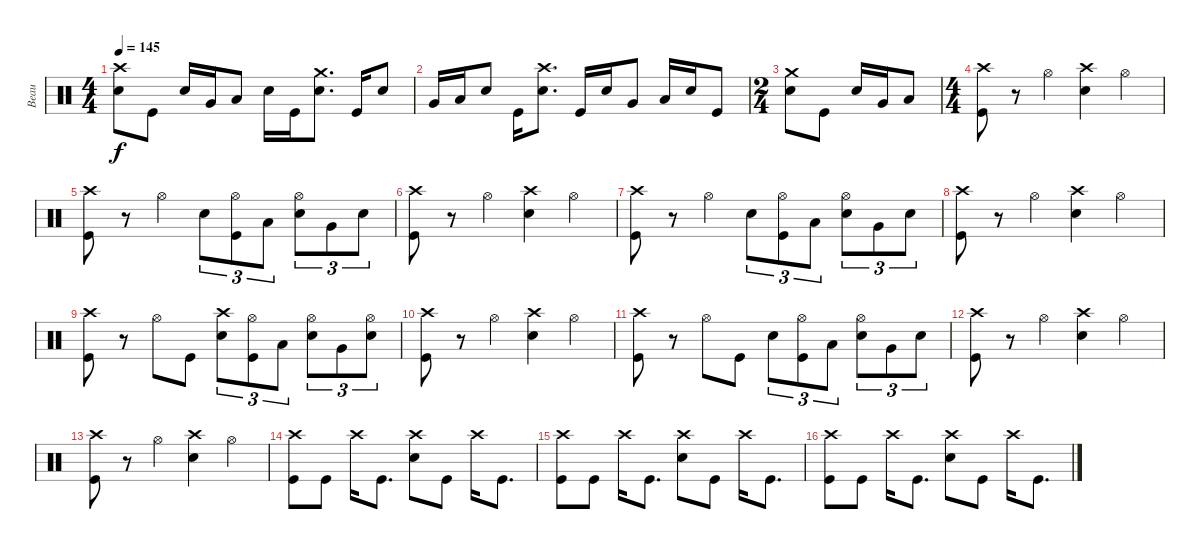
\track ("Beau" "Beau") {instrument percussion}
\staff {score}
\articulation defaults
\ts (4 4)
\tempo 145
\clef neutral
\ks c
("Snare (hit) 2" "Crash high (hit)").8{dy f} "Kick (hit)".8 "Snare (hit) 2".16 "Very Low Tom (hit)".16 "Low Floor Tom (hit)".8 "Snare (hit) 2".16 "Kick (hit)".16 ("Snare (hit) 2" "Crash medium (hit)").8{d} "Kick (hit)".16 "Snare (hit) 2".8 |
"Very Low Tom (hit)".16 "Low Floor Tom (hit)".16 "Snare (hit) 2".8 "Kick (hit)".16 ("Snare (hit) 2" "Crash high (hit)").8{d} "Kick (hit)".16 "Snare (hit) 2".16 "Very Low Tom (hit)".8 "Low Floor Tom (hit)".16 "Snare (hit) 2".16 "Kick (hit)".8 |
\ts (2 4)
("Snare (hit) 2" "Crash medium (hit)").8 "Kick (hit)".8 "Snare (hit) 2".16 "Very Low Tom (hit)".16 "Low Floor Tom (hit)".8 |
\ts (4 4)
("Kick (hit)" "Crash high (hit)").8 r.8 "Hi-Hat (open)".4 ("Snare (hit) 2" "Crash high (hit)").4 "Hi-Hat (open)".4 |
("Kick (hit)" "Crash high (hit)").8 r.8 "Hi-Hat (open)".4 "Snare (hit) 2".8{tu (3 2)} ("Kick (hit)" "Hi-Hat (open)").8{tu (3 2)} "Low Tom (hit)".8{tu (3 2)} ("Snare (hit) 2" "Hi-Hat (open)").8{tu (3 2)} "Very Low Tom (hit)".8{tu (3 2)} "Snare (hit) 2".8{tu (3 2)} |
("Kick (hit)" "Crash high (hit)").8 r.8 "Hi-Hat (open)".4 ("Snare (hit) 2" "Crash high (hit)").4 "Hi-Hat (open)".4 |
("Kick (hit)" "Crash high (hit)").8 r.8 "Hi-Hat (open)".4 "Snare (hit) 2".8{tu (3 2)} ("Kick (hit)" "Hi-Hat (open)").8{tu (3 2)} "Low Tom (hit)".8{tu (3 2)} ("Snare (hit) 2" "Hi-Hat (open)").8{tu (3 2)} "Very Low Tom (hit)".8{tu (3 2)} "Snare (hit) 2".8{tu (3 2)} |
("Kick (hit)" "Crash high (hit)").8 r.8 "Hi-Hat (open)".4 ("Snare (hit) 2" "Crash high (hit)").4 "Hi-Hat (open)".4 |
("Kick (hit)" "Crash high (hit)").8 r.8 "Hi-Hat (open)".8 "Kick (hit)".8 ("Snare (hit) 2" "Crash high (hit)").8{tu (3 2)} ("Kick (hit)" "Hi-Hat (open)").8{tu (3 2)} "Low Tom (hit)".8{tu (3 2)} ("Snare (hit) 2" "Hi-Hat (open)").8{tu (3 2)} "Very Low Tom (hit)".8{tu (3 2)} ("Snare (hit) 2" "Hi-Hat (open)").8{tu (3 2)} |
("Kick (hit)" "Crash high (hit)").8 r.8 "Hi-Hat (open)".4 ("Snare (hit) 2" "Crash high (hit)").4 "Hi-Hat (open)".4 |
("Kick (hit)" "Crash high (hit)").8 r.8 "Hi-Hat (open)".8 "Kick (hit)".8 "Snare (hit) 2".8{tu (3 2)} ("Kick (hit)" "Hi-Hat (open)").8{tu (3 2)} "Low Tom (hit)".8{tu (3 2)} ("Snare (hit) 2" "Hi-Hat (open)").8{tu (3 2)} "Very Low Tom (hit)".8{tu (3 2)} "Snare (hit) 2".8{tu (3 2)} |
("Kick (hit)" "Crash high (hit)").8 r.8 "Hi-Hat (open)".4 ("Snare (hit) 2" "Crash high (hit)").4 "Hi-Hat (open)".4 |
("Kick (hit)" "Crash high (hit)").8 r.8 "Hi-Hat (open)".4 ("Snare (hit) 2" "Crash high (hit)").4 "Hi-Hat (open)".4 |
("Kick (hit)" "Crash high (hit)").8 "Kick (hit)".8 "Crash high (hit)".16 "Kick (hit)".8{d} ("Snare (hit) 2" "Crash high (hit)").8 "Kick (hit)".8 "Crash high (hit)".16 "Kick (hit)".8{d} |
("Kick (hit)" "Crash high (hit)").8 "Kick (hit)".8 "Crash high (hit)".16 "Kick (hit)".8{d} ("Snare (hit) 2" "Crash high (hit)").8 "Kick (hit)".8 "Crash high (hit)".16 "Kick (hit)".8{d} |
("Kick (hit)" "Crash high (hit)").8 "Kick (hit)".8 "Crash high (hit)".16 "Kick (hit)".8{d} ("Snare (hit) 2" "Crash high (hit)").8 "Kick (hit)".8 "Crash high (hit)".16 "Kick (hit)".8{d}
